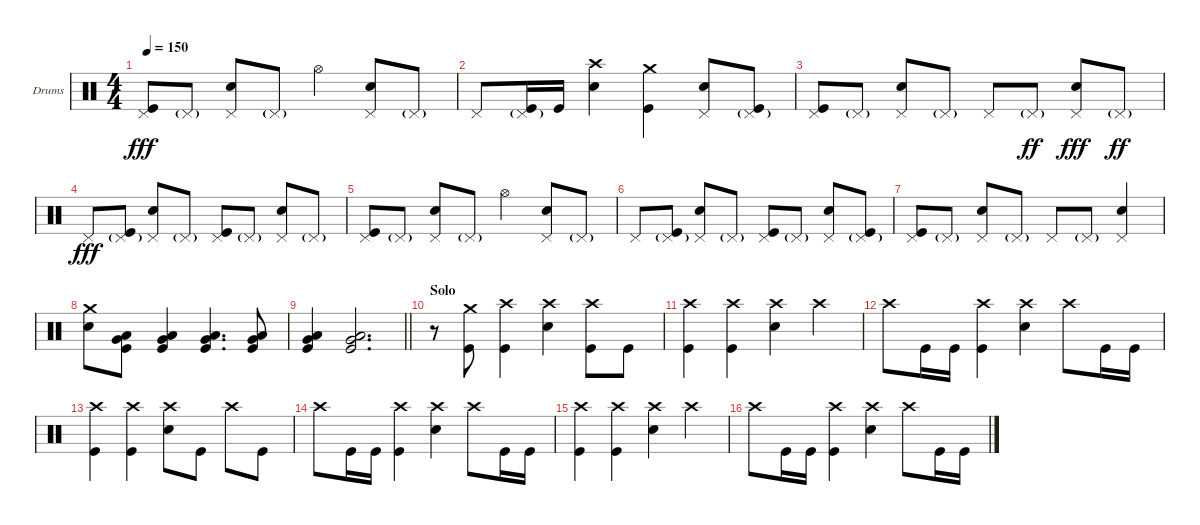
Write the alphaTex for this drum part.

\bracketExtendMode groupsimilarinstruments
\firstSystemTrackNameOrientation horizontal
\otherSystemsTrackNameOrientation horizontal
\track ("Drumkit" "Drums") {instrument percussion}
\staff {score}
\articulation defaults
\ts (4 4)
\tempo 150
\clef neutral
\ks c
("Pedal Hi-Hat (hit)" "Kick (hit)").8{dy fff} "Pedal Hi-Hat (hit)"{g}.8 ("Pedal Hi-Hat (hit)" "Snare (hit) 2").8 "Pedal Hi-Hat (hit)"{g}.8 "Hi-Hat (open)".4 ("Pedal Hi-Hat (hit)" "Snare (hit) 2").8 "Pedal Hi-Hat (hit)"{g}.8 |
"Pedal Hi-Hat (hit)".8 ("Pedal Hi-Hat (hit)"{g} "Kick (hit)").16 "Kick (hit)".16 ("Crash high (hit)" "Snare (hit) 2").4 ("Crash medium (hit)" "Kick (hit)").4 ("Pedal Hi-Hat (hit)" "Snare (hit) 2").8 ("Pedal Hi-Hat (hit)"{g} "Kick (hit)").8 |
("Pedal Hi-Hat (hit)" "Kick (hit)").8 "Pedal Hi-Hat (hit)"{g}.8 ("Pedal Hi-Hat (hit)" "Snare (hit) 2").8 "Pedal Hi-Hat (hit)"{g}.8 "Pedal Hi-Hat (hit)".8 "Pedal Hi-Hat (hit)"{g}.8{dy ff} ("Pedal Hi-Hat (hit)" "Snare (hit) 2").8{dy fff} "Pedal Hi-Hat (hit)"{g}.8{dy ff} |
"Pedal Hi-Hat (hit)".8{dy fff} ("Pedal Hi-Hat (hit)"{g} "Kick (hit)").8 ("Pedal Hi-Hat (hit)" "Snare (hit) 2").8 "Pedal Hi-Hat (hit)"{g}.8 ("Pedal Hi-Hat (hit)" "Kick (hit)").8 "Pedal Hi-Hat (hit)"{g}.8 ("Pedal Hi-Hat (hit)" "Snare (hit) 2").8 "Pedal Hi-Hat (hit)"{g}.8 |
("Pedal Hi-Hat (hit)" "Kick (hit)").8 "Pedal Hi-Hat (hit)"{g}.8 ("Pedal Hi-Hat (hit)" "Snare (hit) 2").8 "Pedal Hi-Hat (hit)"{g}.8 "Hi-Hat (open)".4 ("Pedal Hi-Hat (hit)" "Snare (hit) 2").8 "Pedal Hi-Hat (hit)"{g}.8 |
"Pedal Hi-Hat (hit)".8 ("Pedal Hi-Hat (hit)"{g} "Kick (hit)").8 ("Pedal Hi-Hat (hit)" "Snare (hit) 2").8 "Pedal Hi-Hat (hit)"{g}.8 ("Pedal Hi-Hat (hit)" "Kick (hit)").8 "Pedal Hi-Hat (hit)"{g}.8 ("Pedal Hi-Hat (hit)" "Snare (hit) 2").8 ("Pedal Hi-Hat (hit)"{g} "Kick (hit)").8 |
("Pedal Hi-Hat (hit)" "Kick (hit)").8 "Pedal Hi-Hat (hit)"{g}.8 ("Pedal Hi-Hat (hit)" "Snare (hit) 2").8 "Pedal Hi-Hat (hit)"{g}.8 "Pedal Hi-Hat (hit)".8 "Pedal Hi-Hat (hit)"{g}.8 ("Pedal Hi-Hat (hit)" "Snare (hit) 2").4 |
("Crash medium (hit)" "Snare (hit) 2").8 ("Low Tom (hit)" "Very Low Tom (hit)" "Kick (hit)").8 ("Low Tom (hit)" "Very Low Tom (hit)" "Kick (hit)").4 ("Low Tom (hit)" "Very Low Tom (hit)" "Kick (hit)").4{d} ("Low Tom (hit)" "Very Low Tom (hit)" "Kick (hit)").8 |
\barLineRight lightlight
("Low Tom (hit)" "Very Low Tom (hit)" "Kick (hit)").4 ("Low Tom (hit)" "Very Low Tom (hit)" "Kick (hit)").2{d} |
\section ("" "Solo")
r.8 ("Crash medium (hit)" "Kick (hit)").8 ("Crash high (hit)" "Kick (hit)").4 ("Crash high (hit)" "Snare (hit) 2").4 ("Crash high (hit)" "Kick (hit)").8 "Kick (hit)".8 |
("Crash high (hit)" "Kick (hit)").4 ("Crash high (hit)" "Kick (hit)").4 ("Crash high (hit)" "Snare (hit) 2").4 "Crash high (hit)".4 |
"Crash high (hit)".8 "Kick (hit)".16 "Kick (hit)".16 ("Crash high (hit)" "Kick (hit)").4 ("Crash high (hit)" "Snare (hit) 2").4 "Crash high (hit)".8 "Kick (hit)".16 "Kick (hit)".16 |
("Crash high (hit)" "Kick (hit)").4 ("Crash high (hit)" "Kick (hit)").4 ("Crash high (hit)" "Snare (hit) 2").8 "Kick (hit)".8 "Crash high (hit)".8 "Kick (hit)".8 |
"Crash high (hit)".8 "Kick (hit)".16 "Kick (hit)".16 ("Crash high (hit)" "Kick (hit)").4 ("Crash high (hit)" "Snare (hit) 2").4 "Crash high (hit)".8 "Kick (hit)".16 "Kick (hit)".16 |
("Crash high (hit)" "Kick (hit)").4 ("Crash high (hit)" "Kick (hit)").4 ("Crash high (hit)" "Snare (hit) 2").4 "Crash high (hit)".4 |
"Crash high (hit)".8 "Kick (hit)".16 "Kick (hit)".16 ("Crash high (hit)" "Kick (hit)").4 ("Crash high (hit)" "Snare (hit) 2").4 "Crash high (hit)".8 "Kick (hit)".16 "Kick (hit)".16
